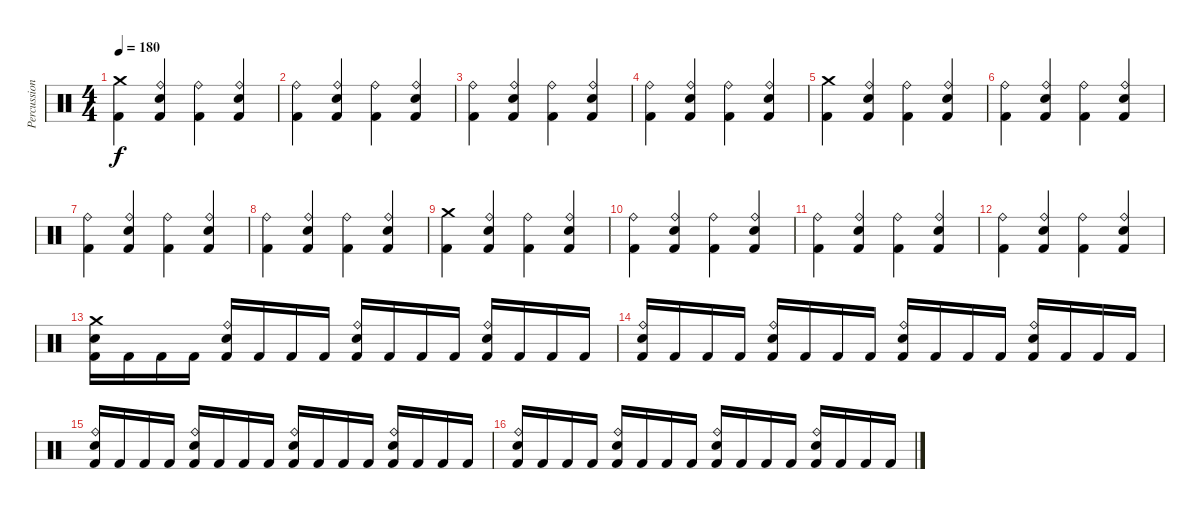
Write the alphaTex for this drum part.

\track ("Percussion" "Percussion") {instrument percussion}
\staff {score}
\articulation defaults
\ts (4 4)
\tempo 180
\clef neutral
\ks c
("Crash medium (hit)" "Kick (hit) 2").4{dy f} ("Ride (bell)" "Electric Snare (hit)" "Kick (hit) 2").4 ("Ride (bell)" "Kick (hit) 2").4 ("Ride (bell)" "Electric Snare (hit)" "Kick (hit) 2").4 |
("Ride (bell)" "Kick (hit) 2").4 ("Ride (bell)" "Electric Snare (hit)" "Kick (hit) 2").4 ("Ride (bell)" "Kick (hit) 2").4 ("Ride (bell)" "Electric Snare (hit)" "Kick (hit) 2").4 |
("Ride (bell)" "Kick (hit) 2").4 ("Ride (bell)" "Electric Snare (hit)" "Kick (hit) 2").4 ("Ride (bell)" "Kick (hit) 2").4 ("Ride (bell)" "Electric Snare (hit)" "Kick (hit) 2").4 |
("Ride (bell)" "Kick (hit) 2").4 ("Ride (bell)" "Electric Snare (hit)" "Kick (hit) 2").4 ("Ride (bell)" "Kick (hit) 2").4 ("Ride (bell)" "Electric Snare (hit)" "Kick (hit) 2").4 |
("Crash medium (hit)" "Kick (hit) 2").4 ("Ride (bell)" "Electric Snare (hit)" "Kick (hit) 2").4 ("Ride (bell)" "Kick (hit) 2").4 ("Ride (bell)" "Electric Snare (hit)" "Kick (hit) 2").4 |
("Ride (bell)" "Kick (hit) 2").4 ("Ride (bell)" "Electric Snare (hit)" "Kick (hit) 2").4 ("Ride (bell)" "Kick (hit) 2").4 ("Ride (bell)" "Electric Snare (hit)" "Kick (hit) 2").4 |
("Ride (bell)" "Kick (hit) 2").4 ("Ride (bell)" "Electric Snare (hit)" "Kick (hit) 2").4 ("Ride (bell)" "Kick (hit) 2").4 ("Ride (bell)" "Electric Snare (hit)" "Kick (hit) 2").4 |
("Ride (bell)" "Kick (hit) 2").4 ("Ride (bell)" "Electric Snare (hit)" "Kick (hit) 2").4 ("Ride (bell)" "Kick (hit) 2").4 ("Ride (bell)" "Electric Snare (hit)" "Kick (hit) 2").4 |
("Crash medium (hit)" "Kick (hit) 2").4 ("Ride (bell)" "Electric Snare (hit)" "Kick (hit) 2").4 ("Ride (bell)" "Kick (hit) 2").4 ("Ride (bell)" "Electric Snare (hit)" "Kick (hit) 2").4 |
("Ride (bell)" "Kick (hit) 2").4 ("Ride (bell)" "Electric Snare (hit)" "Kick (hit) 2").4 ("Ride (bell)" "Kick (hit) 2").4 ("Ride (bell)" "Electric Snare (hit)" "Kick (hit) 2").4 |
("Ride (bell)" "Kick (hit) 2").4 ("Ride (bell)" "Electric Snare (hit)" "Kick (hit) 2").4 ("Ride (bell)" "Kick (hit) 2").4 ("Ride (bell)" "Electric Snare (hit)" "Kick (hit) 2").4 |
("Ride (bell)" "Kick (hit) 2").4 ("Ride (bell)" "Electric Snare (hit)" "Kick (hit) 2").4 ("Ride (bell)" "Kick (hit) 2").4 ("Ride (bell)" "Electric Snare (hit)" "Kick (hit) 2").4 |
("Crash medium (hit)" "Electric Snare (hit)" "Kick (hit) 2").16 "Kick (hit) 2".16 "Kick (hit) 2".16 "Kick (hit) 2".16 ("Ride (bell)" "Electric Snare (hit)" "Kick (hit) 2").16 "Kick (hit) 2".16 "Kick (hit) 2".16 "Kick (hit) 2".16 ("Ride (bell)" "Electric Snare (hit)" "Kick (hit) 2").16 "Kick (hit) 2".16 "Kick (hit) 2".16 "Kick (hit) 2".16 ("Ride (bell)" "Electric Snare (hit)" "Kick (hit) 2").16 "Kick (hit) 2".16 "Kick (hit) 2".16 "Kick (hit) 2".16 |
("Ride (bell)" "Electric Snare (hit)" "Kick (hit) 2").16 "Kick (hit) 2".16 "Kick (hit) 2".16 "Kick (hit) 2".16 ("Ride (bell)" "Electric Snare (hit)" "Kick (hit) 2").16 "Kick (hit) 2".16 "Kick (hit) 2".16 "Kick (hit) 2".16 ("Ride (bell)" "Electric Snare (hit)" "Kick (hit) 2").16 "Kick (hit) 2".16 "Kick (hit) 2".16 "Kick (hit) 2".16 ("Ride (bell)" "Electric Snare (hit)" "Kick (hit) 2").16 "Kick (hit) 2".16 "Kick (hit) 2".16 "Kick (hit) 2".16 |
("Ride (bell)" "Electric Snare (hit)" "Kick (hit) 2").16 "Kick (hit) 2".16 "Kick (hit) 2".16 "Kick (hit) 2".16 ("Ride (bell)" "Electric Snare (hit)" "Kick (hit) 2").16 "Kick (hit) 2".16 "Kick (hit) 2".16 "Kick (hit) 2".16 ("Ride (bell)" "Electric Snare (hit)" "Kick (hit) 2").16 "Kick (hit) 2".16 "Kick (hit) 2".16 "Kick (hit) 2".16 ("Ride (bell)" "Electric Snare (hit)" "Kick (hit) 2").16 "Kick (hit) 2".16 "Kick (hit) 2".16 "Kick (hit) 2".16 |
("Ride (bell)" "Electric Snare (hit)" "Kick (hit) 2").16 "Kick (hit) 2".16 "Kick (hit) 2".16 "Kick (hit) 2".16 ("Ride (bell)" "Electric Snare (hit)" "Kick (hit) 2").16 "Kick (hit) 2".16 "Kick (hit) 2".16 "Kick (hit) 2".16 ("Ride (bell)" "Electric Snare (hit)" "Kick (hit) 2").16 "Kick (hit) 2".16 "Kick (hit) 2".16 "Kick (hit) 2".16 ("Ride (bell)" "Electric Snare (hit)" "Kick (hit) 2").16 "Kick (hit) 2".16 "Kick (hit) 2".16 "Kick (hit) 2".16
